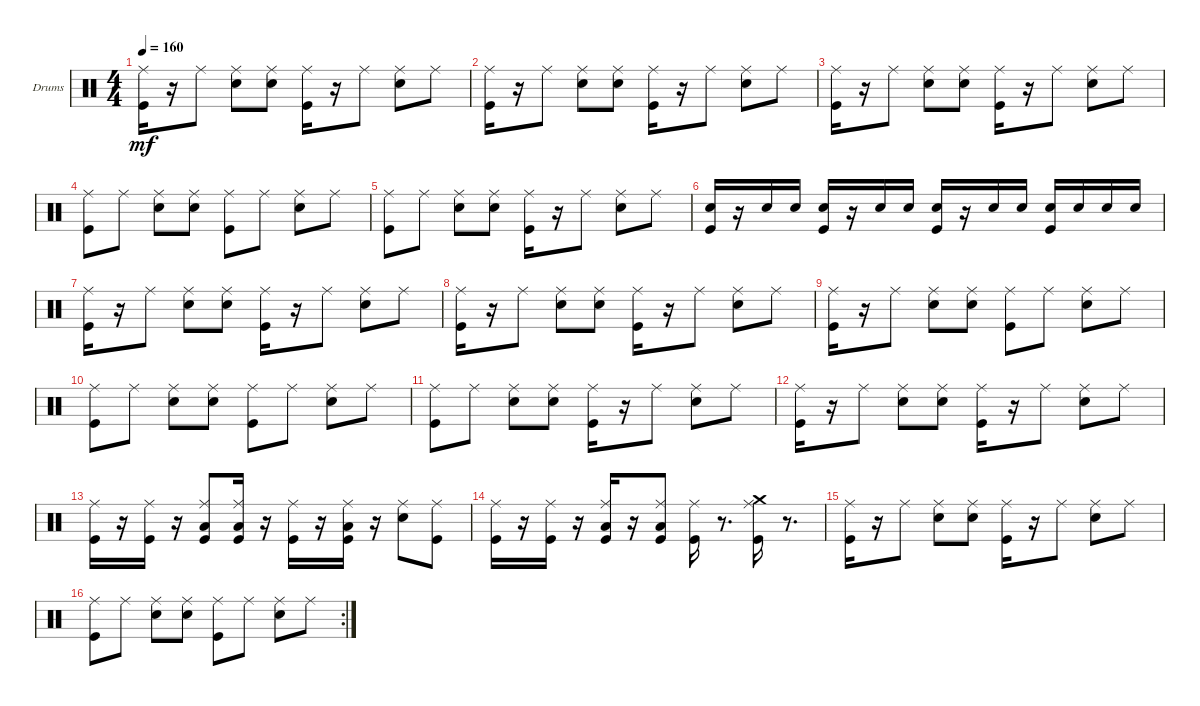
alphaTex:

\defaultSystemsLayout 4
\bracketExtendMode groupsimilarinstruments
\firstSystemTrackNameOrientation horizontal
\otherSystemsTrackNameOrientation horizontal
\track ("Drumkit" "Drums") {instrument percussion}
\staff {score}
\articulation defaults
\ts (4 4)
\tempo 160
\clef neutral
\ks c
("Kick (hit)" "Ride (middle)").16{dy mf} r.16 "Ride (middle)".8 ("Snare (hit) 2" "Ride (middle)").8 ("Ride (middle)" "Snare (hit) 2").8 ("Kick (hit)" "Ride (middle)").16 r.16 "Ride (middle)".8 ("Snare (hit) 2" "Ride (middle)").8 "Ride (middle)".8 |
("Kick (hit)" "Ride (middle)").16 r.16 "Ride (middle)".8 ("Snare (hit) 2" "Ride (middle)").8 ("Snare (hit) 2" "Ride (middle)").8 ("Kick (hit)" "Ride (middle)").16 r.16 "Ride (middle)".8 ("Snare (hit) 2" "Ride (middle)").8 "Ride (middle)".8 |
("Kick (hit)" "Ride (middle)").16 r.16 "Ride (middle)".8 ("Snare (hit) 2" "Ride (middle)").8 ("Snare (hit) 2" "Ride (middle)").8 ("Kick (hit)" "Ride (middle)").16 r.16 "Ride (middle)".8 ("Ride (middle)" "Snare (hit) 2").8 "Ride (middle)".8 |
("Kick (hit)" "Ride (middle)").8 "Ride (middle)".8 ("Snare (hit) 2" "Ride (middle)").8 ("Snare (hit) 2" "Ride (middle)").8 ("Kick (hit)" "Ride (middle)").8 "Ride (middle)".8 ("Snare (hit) 2" "Ride (middle)").8 "Ride (middle)".8 |
("Kick (hit)" "Ride (middle)").8 "Ride (middle)".8 ("Snare (hit) 2" "Ride (middle)").8 ("Snare (hit) 2" "Ride (middle)").8 ("Kick (hit)" "Ride (middle)").16 r.16 "Ride (middle)".8 ("Snare (hit) 2" "Ride (middle)").8 "Ride (middle)".8 |
("Kick (hit)" "Snare (hit) 2").16 r.16 "Snare (hit) 2".16 "Snare (hit) 2".16 ("Snare (hit) 2" "Kick (hit)").16 r.16 "Snare (hit) 2".16 "Snare (hit) 2".16 ("Kick (hit)" "Snare (hit) 2").16 r.16 "Snare (hit) 2".16 "Snare (hit) 2".16 ("Kick (hit)" "Snare (hit) 2").16 "Snare (hit) 2".16 "Snare (hit) 2".16 "Snare (hit) 2".16 |
("Kick (hit)" "Ride (middle)").16 r.16 "Ride (middle)".8 ("Snare (hit) 2" "Ride (middle)").8 ("Snare (hit) 2" "Ride (middle)").8 ("Kick (hit)" "Ride (middle)").16 r.16 "Ride (middle)".8 ("Snare (hit) 2" "Ride (middle)").8 "Ride (middle)".8 |
("Kick (hit)" "Ride (middle)").16 r.16 "Ride (middle)".8 ("Snare (hit) 2" "Ride (middle)").8 ("Snare (hit) 2" "Ride (middle)").8 ("Kick (hit)" "Ride (middle)").16 r.16 "Ride (middle)".8 ("Snare (hit) 2" "Ride (middle)").8 "Ride (middle)".8 |
("Kick (hit)" "Ride (middle)").16 r.16 "Ride (middle)".8 ("Snare (hit) 2" "Ride (middle)").8 ("Snare (hit) 2" "Ride (middle)").8 ("Kick (hit)" "Ride (middle)").8 "Ride (middle)".8 ("Ride (middle)" "Snare (hit) 2").8 "Ride (middle)".8 |
("Kick (hit)" "Ride (middle)").8 "Ride (middle)".8 ("Snare (hit) 2" "Ride (middle)").8 ("Snare (hit) 2" "Ride (middle)").8 ("Kick (hit)" "Ride (middle)").8 "Ride (middle)".8 ("Snare (hit) 2" "Ride (middle)").8 "Ride (middle)".8 |
("Kick (hit)" "Ride (middle)").8 "Ride (middle)".8 ("Snare (hit) 2" "Ride (middle)").8 ("Snare (hit) 2" "Ride (middle)").8 ("Kick (hit)" "Ride (middle)").16 r.16 "Ride (middle)".8 ("Snare (hit) 2" "Ride (middle)").8 "Ride (middle)".8 |
("Kick (hit)" "Ride (middle)").16 r.16 "Ride (middle)".8 ("Snare (hit) 2" "Ride (middle)").8 ("Snare (hit) 2" "Ride (middle)").8 ("Kick (hit)" "Ride (middle)").16 r.16 "Ride (middle)".8 ("Snare (hit) 2" "Ride (middle)").8 "Ride (middle)".8 |
("Kick (hit)" "Ride (middle)").16 r.16 ("Ride (middle)" "Kick (hit)").16 r.16 ("Kick (hit)" "Ride (middle)" "Low Tom (hit)").8 ("Ride (middle)" "Kick (hit)" "Low Tom (hit)").16 r.16 ("Kick (hit)" "Ride (middle)").16 r.16 ("Ride (middle)" "Low Tom (hit)" "Kick (hit)").16 r.16 ("Ride (middle)" "Snare (hit) 2").8 ("Ride (middle)" "Kick (hit)").8 |
("Ride (middle)" "Kick (hit)").16 r.16 ("Ride (middle)" "Kick (hit)").16 r.16 ("Kick (hit)" "Ride (middle)" "Low Tom (hit)").16 r.16 ("Ride (middle)" "Low Tom (hit)" "Kick (hit)").8 ("Kick (hit)" "Ride (middle)").16 r.8{d} ("Ride (middle)" "Kick (hit)" "Crash medium (hit)").16 r.8{d} |
("Kick (hit)" "Ride (middle)").16 r.16 "Ride (middle)".8 ("Snare (hit) 2" "Ride (middle)").8 ("Snare (hit) 2" "Ride (middle)").8 ("Kick (hit)" "Ride (middle)").16 r.16 "Ride (middle)".8 ("Ride (middle)" "Snare (hit) 2").8 "Ride (middle)".8 |
\rc 2
("Kick (hit)" "Ride (middle)").8 "Ride (middle)".8 ("Snare (hit) 2" "Ride (middle)").8 ("Snare (hit) 2" "Ride (middle)").8 ("Kick (hit)" "Ride (middle)").8 "Ride (middle)".8 ("Snare (hit) 2" "Ride (middle)").8 "Ride (middle)".8
